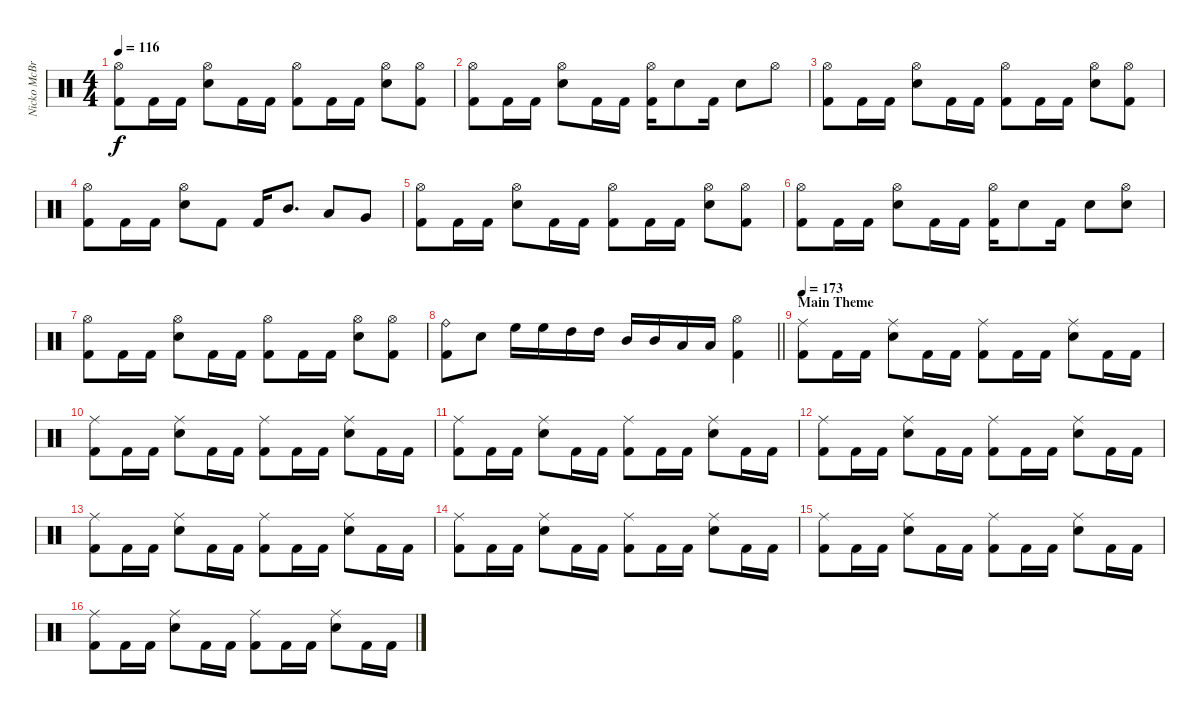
\track ("Nicko McBrain" "Nicko McBr") {instrument percussion}
\staff {score}
\articulation defaults
\ts (4 4)
\tempo 116
\clef neutral
\ks c
("Hi-Hat (open)" "Kick (hit) 2").8{dy f} "Kick (hit) 2".16 "Kick (hit) 2".16 ("Hi-Hat (open)" "Snare (hit) 2").8 "Kick (hit) 2".16 "Kick (hit) 2".16 ("Hi-Hat (open)" "Kick (hit) 2").8 "Kick (hit) 2".16 "Kick (hit) 2".16 ("Hi-Hat (open)" "Snare (hit) 2").8 ("Hi-Hat (open)" "Kick (hit) 2").8 |
("Hi-Hat (open)" "Kick (hit) 2").8 "Kick (hit) 2".16 "Kick (hit) 2".16 ("Hi-Hat (open)" "Snare (hit) 2").8 "Kick (hit) 2".16 "Kick (hit) 2".16 ("Hi-Hat (open)" "Kick (hit) 2").16 "Snare (hit) 2".8 "Kick (hit) 2".16 "Snare (hit) 2".8 "Hi-Hat (open)".8 |
("Hi-Hat (open)" "Kick (hit) 2").8 "Kick (hit) 2".16 "Kick (hit) 2".16 ("Hi-Hat (open)" "Snare (hit) 2").8 "Kick (hit) 2".16 "Kick (hit) 2".16 ("Hi-Hat (open)" "Kick (hit) 2").8 "Kick (hit) 2".16 "Kick (hit) 2".16 ("Hi-Hat (open)" "Snare (hit) 2").8 ("Hi-Hat (open)" "Kick (hit) 2").8 |
("Hi-Hat (open)" "Kick (hit) 2").8 "Kick (hit) 2".16 "Kick (hit) 2".16 ("Hi-Hat (open)" "Snare (hit) 2").8 "Kick (hit) 2".8 "Kick (hit) 2".16 "Mid Tom (hit)".8{d} "Low Tom (hit)".8 "Very Low Tom (hit)".8 |
("Hi-Hat (open)" "Kick (hit) 2").8 "Kick (hit) 2".16 "Kick (hit) 2".16 ("Hi-Hat (open)" "Snare (hit) 2").8 "Kick (hit) 2".16 "Kick (hit) 2".16 ("Hi-Hat (open)" "Kick (hit) 2").8 "Kick (hit) 2".16 "Kick (hit) 2".16 ("Hi-Hat (open)" "Snare (hit) 2").8 ("Hi-Hat (open)" "Kick (hit) 2").8 |
("Hi-Hat (open)" "Kick (hit) 2").8 "Kick (hit) 2".16 "Kick (hit) 2".16 ("Hi-Hat (open)" "Snare (hit) 2").8 "Kick (hit) 2".16 "Kick (hit) 2".16 ("Hi-Hat (open)" "Kick (hit) 2").16 "Snare (hit) 2".8 "Kick (hit) 2".16 "Snare (hit) 2".8 ("Hi-Hat (open)" "Snare (hit) 2").8 |
("Hi-Hat (open)" "Kick (hit) 2").8 "Kick (hit) 2".16 "Kick (hit) 2".16 ("Hi-Hat (open)" "Snare (hit) 2").8 "Kick (hit) 2".16 "Kick (hit) 2".16 ("Hi-Hat (open)" "Kick (hit) 2").8 "Kick (hit) 2".16 "Kick (hit) 2".16 ("Hi-Hat (open)" "Snare (hit) 2").8 ("Hi-Hat (open)" "Kick (hit) 2").8 |
\barLineRight lightlight
("Ride (bell)" "Kick (hit) 2").8 "Electric Snare (hit)".8 "High Floor Tom (hit)".16 "High Floor Tom (hit)".16 "High Tom (hit)".16 "High Tom (hit)".16 "Mid Tom (hit)".16 "Mid Tom (hit)".16 "Low Tom (hit)".16 "Low Tom (hit)".16 ("Hi-Hat (open)" "Kick (hit) 2").4 |
\section ("" "Main Theme")
\tempo 173
("Ride (middle)" "Kick (hit) 2").8 "Kick (hit) 2".16 "Kick (hit) 2".16 ("Ride (middle)" "Electric Snare (hit)").8 "Kick (hit) 2".16 "Kick (hit) 2".16 ("Ride (middle)" "Kick (hit) 2").8 "Kick (hit) 2".16 "Kick (hit) 2".16 ("Ride (middle)" "Electric Snare (hit)").8 "Kick (hit) 2".16 "Kick (hit) 2".16 |
("Ride (middle)" "Kick (hit) 2").8 "Kick (hit) 2".16 "Kick (hit) 2".16 ("Ride (middle)" "Electric Snare (hit)").8 "Kick (hit) 2".16 "Kick (hit) 2".16 ("Ride (middle)" "Kick (hit) 2").8 "Kick (hit) 2".16 "Kick (hit) 2".16 ("Ride (middle)" "Electric Snare (hit)").8 "Kick (hit) 2".16 "Kick (hit) 2".16 |
("Ride (middle)" "Kick (hit) 2").8 "Kick (hit) 2".16 "Kick (hit) 2".16 ("Ride (middle)" "Electric Snare (hit)").8 "Kick (hit) 2".16 "Kick (hit) 2".16 ("Ride (middle)" "Kick (hit) 2").8 "Kick (hit) 2".16 "Kick (hit) 2".16 ("Ride (middle)" "Electric Snare (hit)").8 "Kick (hit) 2".16 "Kick (hit) 2".16 |
("Ride (middle)" "Kick (hit) 2").8 "Kick (hit) 2".16 "Kick (hit) 2".16 ("Ride (middle)" "Electric Snare (hit)").8 "Kick (hit) 2".16 "Kick (hit) 2".16 ("Ride (middle)" "Kick (hit) 2").8 "Kick (hit) 2".16 "Kick (hit) 2".16 ("Ride (middle)" "Electric Snare (hit)").8 "Kick (hit) 2".16 "Kick (hit) 2".16 |
("Ride (middle)" "Kick (hit) 2").8 "Kick (hit) 2".16 "Kick (hit) 2".16 ("Ride (middle)" "Electric Snare (hit)").8 "Kick (hit) 2".16 "Kick (hit) 2".16 ("Ride (middle)" "Kick (hit) 2").8 "Kick (hit) 2".16 "Kick (hit) 2".16 ("Ride (middle)" "Electric Snare (hit)").8 "Kick (hit) 2".16 "Kick (hit) 2".16 |
("Ride (middle)" "Kick (hit) 2").8 "Kick (hit) 2".16 "Kick (hit) 2".16 ("Ride (middle)" "Electric Snare (hit)").8 "Kick (hit) 2".16 "Kick (hit) 2".16 ("Ride (middle)" "Kick (hit) 2").8 "Kick (hit) 2".16 "Kick (hit) 2".16 ("Ride (middle)" "Electric Snare (hit)").8 "Kick (hit) 2".16 "Kick (hit) 2".16 |
("Ride (middle)" "Kick (hit) 2").8 "Kick (hit) 2".16 "Kick (hit) 2".16 ("Ride (middle)" "Electric Snare (hit)").8 "Kick (hit) 2".16 "Kick (hit) 2".16 ("Ride (middle)" "Kick (hit) 2").8 "Kick (hit) 2".16 "Kick (hit) 2".16 ("Ride (middle)" "Electric Snare (hit)").8 "Kick (hit) 2".16 "Kick (hit) 2".16 |
("Ride (middle)" "Kick (hit) 2").8 "Kick (hit) 2".16 "Kick (hit) 2".16 ("Ride (middle)" "Electric Snare (hit)").8 "Kick (hit) 2".16 "Kick (hit) 2".16 ("Ride (middle)" "Kick (hit) 2").8 "Kick (hit) 2".16 "Kick (hit) 2".16 ("Ride (middle)" "Electric Snare (hit)").8 "Kick (hit) 2".16 "Kick (hit) 2".16
